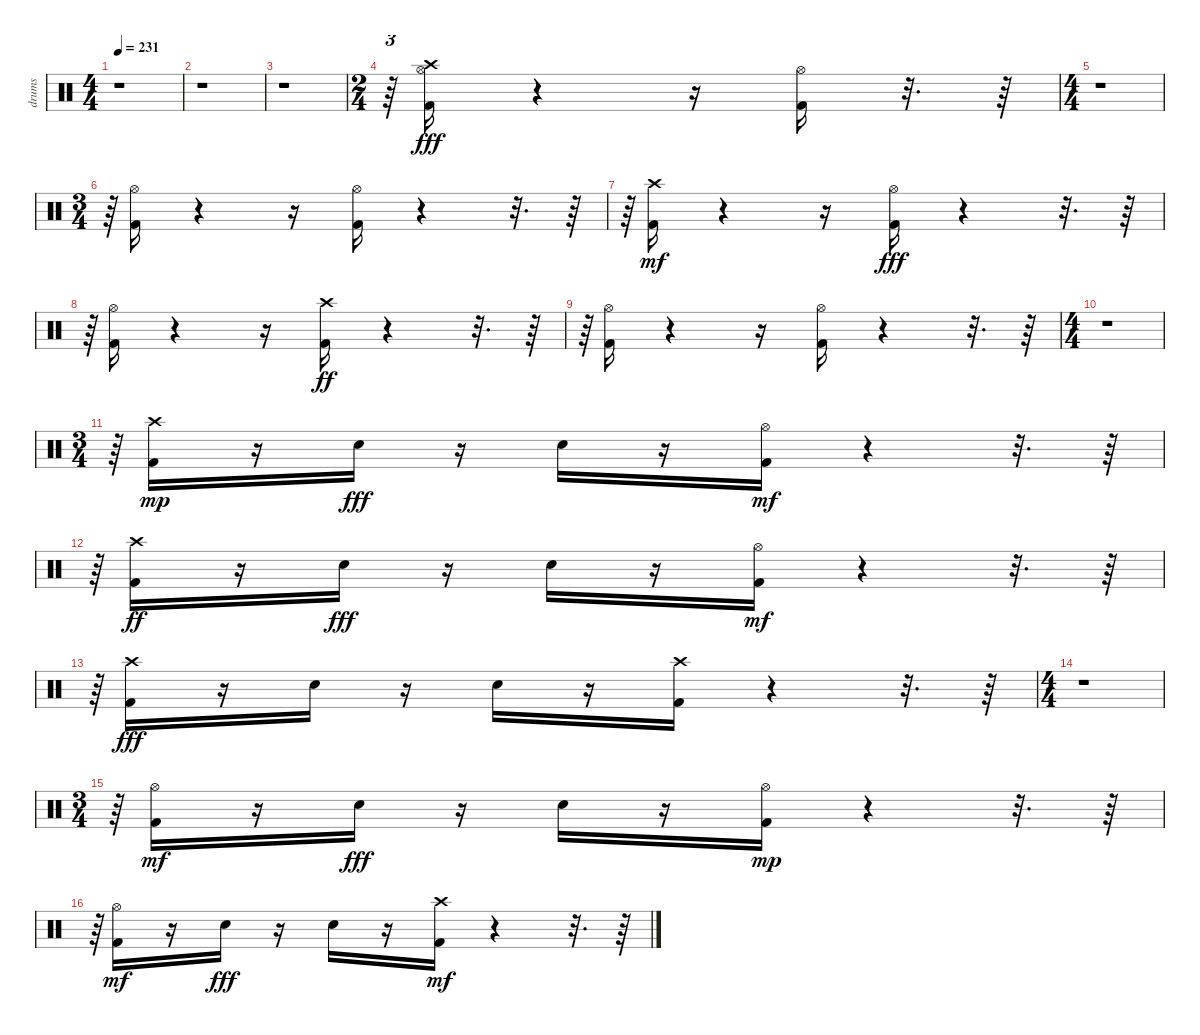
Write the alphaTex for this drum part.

\track ("drums               " "drums     ") {instrument percussion}
\staff {score}
\articulation defaults
\ts (4 4)
\tempo 231
\clef neutral
\ks c
r.1{dy fff} |
r.1 |
r.1 |
\ts (2 4)
r.64{tu (3 2)} ("Kick (hit) 2" "Hi-Hat (open)" "Crash high (hit)").16 r.4 r.16 ("Kick (hit) 2" "Hi-Hat (open)").16 r.32{d} r.64 |
\ts (4 4)
r.1 |
\ts (3 4)
r.64{tu (3 2)} ("Kick (hit) 2" "Hi-Hat (open)").16 r.4 r.16 ("Kick (hit) 2" "Hi-Hat (open)").16 r.4 r.32{d} r.64 |
r.64{tu (3 2)} ("Kick (hit) 2" "Crash high (hit)").16{dy mf} r.4 r.16 ("Kick (hit) 2" "Hi-Hat (open)").16{dy fff} r.4 r.32{d} r.64 |
r.64{tu (3 2)} ("Kick (hit) 2" "Hi-Hat (open)").16 r.4 r.16 ("Kick (hit) 2" "Crash high (hit)").16{dy ff} r.4 r.32{d} r.64 |
r.64{tu (3 2)} ("Kick (hit) 2" "Hi-Hat (open)").16 r.4 r.16 ("Kick (hit) 2" "Hi-Hat (open)").16 r.4 r.32{d} r.64 |
\ts (4 4)
r.1 |
\ts (3 4)
r.64{tu (3 2)} ("Kick (hit) 2" "Crash high (hit)").16{dy mp} r.16 "Snare (hit) 2".16{dy fff} r.16 "Snare (hit) 2".16 r.16 ("Kick (hit) 2" "Hi-Hat (open)").16{dy mf} r.4 r.32{d} r.64 |
r.64{tu (3 2)} ("Kick (hit) 2" "Crash high (hit)").16{dy ff} r.16 "Snare (hit) 2".16{dy fff} r.16 "Snare (hit) 2".16 r.16 ("Kick (hit) 2" "Hi-Hat (open)").16{dy mf} r.4 r.32{d} r.64 |
r.64{tu (3 2)} ("Kick (hit) 2" "Crash high (hit)").16{dy fff} r.16 "Snare (hit) 2".16 r.16 "Snare (hit) 2".16 r.16 ("Kick (hit) 2" "Crash high (hit)").16 r.4 r.32{d} r.64 |
\ts (4 4)
r.1 |
\ts (3 4)
r.64{tu (3 2)} ("Kick (hit) 2" "Hi-Hat (open)").16{dy mf} r.16 "Snare (hit) 2".16{dy fff} r.16 "Snare (hit) 2".16 r.16 ("Kick (hit) 2" "Hi-Hat (open)").16{dy mp} r.4 r.32{d} r.64 |
r.64{tu (3 2)} ("Kick (hit) 2" "Hi-Hat (open)").16{dy mf} r.16 "Snare (hit) 2".16{dy fff} r.16 "Snare (hit) 2".16 r.16 ("Kick (hit) 2" "Crash high (hit)").16{dy mf} r.4 r.32{d} r.64
